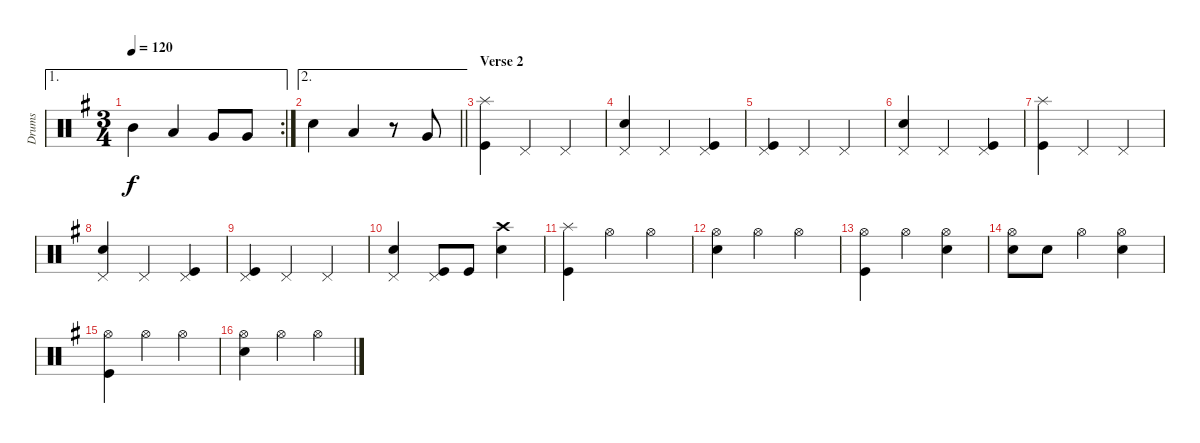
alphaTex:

\track ("Drums" "Drums") {instrument percussion}
\staff {score}
\articulation defaults
\ae 1
\rc 2
\ts (3 4)
\tempo 120
\clef neutral
\ks g "Mid Tom (hit)".4{dy f} "Low Tom (hit)".4 "Very Low Tom (hit)".8 "Very Low Tom (hit)".8
|
\ae 2
\barLineRight lightlight "Snare (hit) 2".4 "Low Tom (hit)".4
r.8 "Very Low Tom (hit)".8 |
\section ("" "Verse 2")
("Splash (hit)" "Kick (hit)").4 "Pedal Hi-Hat (hit)".4 "Pedal Hi-Hat (hit)".4 |
("Pedal Hi-Hat (hit)" "Snare (hit) 2").4 "Pedal Hi-Hat (hit)".4 ("Pedal Hi-Hat (hit)" "Kick (hit)").4 |
("Pedal Hi-Hat (hit)" "Kick (hit)").4 "Pedal Hi-Hat (hit)".4 "Pedal Hi-Hat (hit)".4 |
("Pedal Hi-Hat (hit)" "Snare (hit) 2").4 "Pedal Hi-Hat (hit)".4 ("Pedal Hi-Hat (hit)" "Kick (hit)").4 |
("Splash (hit)" "Kick (hit)").4 "Pedal Hi-Hat (hit)".4 "Pedal Hi-Hat (hit)".4 |
("Pedal Hi-Hat (hit)" "Snare (hit) 2").4 "Pedal Hi-Hat (hit)".4 ("Pedal Hi-Hat (hit)" "Kick (hit)").4 |
("Pedal Hi-Hat (hit)" "Kick (hit)").4 "Pedal Hi-Hat (hit)".4 "Pedal Hi-Hat (hit)".4 |
("Pedal Hi-Hat (hit)" "Snare (hit) 2").4 ("Pedal Hi-Hat (hit)" "Kick (hit)").8 "Kick (hit)".8 ("Crash high (hit)" "Snare (hit) 2").4 |
("Splash (hit)" "Kick (hit)").4 "Hi-Hat (open)".4 "Hi-Hat (open)".4 |
("Hi-Hat (open)" "Snare (hit) 2").4 "Hi-Hat (open)".4 "Hi-Hat (open)".4 |
("Hi-Hat (open)" "Kick (hit)").4 "Hi-Hat (open)".4 ("Hi-Hat (open)" "Snare (hit) 2").4 |
("Hi-Hat (open)" "Snare (hit) 2").8 "Snare (hit) 2".8 "Hi-Hat (open)".4 ("Hi-Hat (open)" "Snare (hit) 2").4 |
("Hi-Hat (open)" "Kick (hit)").4 "Hi-Hat (open)".4 "Hi-Hat (open)".4 |
("Hi-Hat (open)" "Snare (hit) 2").4 "Hi-Hat (open)".4 "Hi-Hat (open)".4
